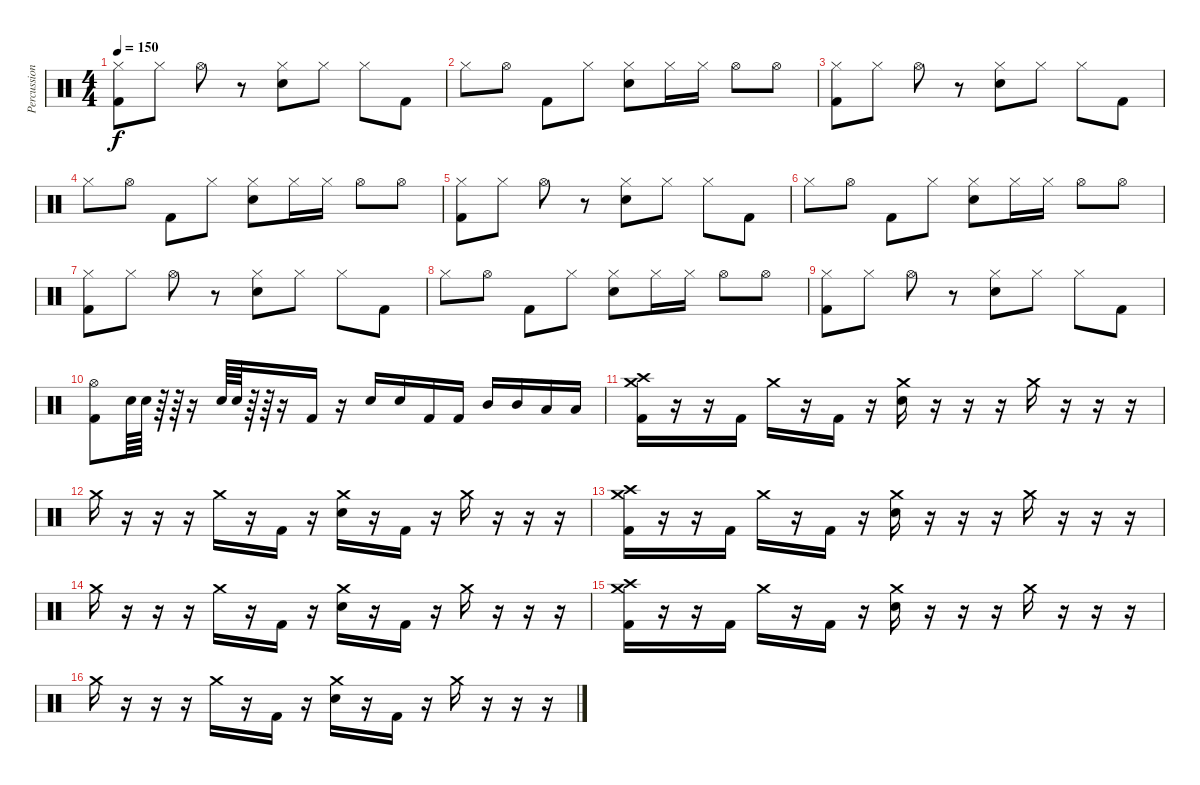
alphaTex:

\track ("Percussioni" "Percussion") {instrument percussion}
\staff {score}
\articulation defaults
\ts (4 4)
\tempo 150
\clef neutral
\ks c
("Kick (hit) 2" "Hi-Hat (closed)").8{dy f} "Hi-Hat (closed)".8 "Hi-Hat (open)".8 r.8 ("Snare (hit) 2" "Hi-Hat (closed)").8 "Hi-Hat (closed)".8 "Hi-Hat (closed)".8 "Kick (hit) 2".8 |
"Hi-Hat (closed)".8 "Hi-Hat (open)".8 "Kick (hit) 2".8 "Hi-Hat (closed)".8 ("Snare (hit) 2" "Hi-Hat (closed)").8 "Hi-Hat (closed)".16 "Hi-Hat (closed)".16 "Hi-Hat (open)".8 "Hi-Hat (open)".8 |
("Kick (hit) 2" "Hi-Hat (closed)").8 "Hi-Hat (closed)".8 "Hi-Hat (open)".8 r.8 ("Snare (hit) 2" "Hi-Hat (closed)").8 "Hi-Hat (closed)".8 "Hi-Hat (closed)".8 "Kick (hit) 2".8 |
"Hi-Hat (closed)".8 "Hi-Hat (open)".8 "Kick (hit) 2".8 "Hi-Hat (closed)".8 ("Snare (hit) 2" "Hi-Hat (closed)").8 "Hi-Hat (closed)".16 "Hi-Hat (closed)".16 "Hi-Hat (open)".8 "Hi-Hat (open)".8 |
("Kick (hit) 2" "Hi-Hat (closed)").8 "Hi-Hat (closed)".8 "Hi-Hat (open)".8 r.8 ("Snare (hit) 2" "Hi-Hat (closed)").8 "Hi-Hat (closed)".8 "Hi-Hat (closed)".8 "Kick (hit) 2".8 |
"Hi-Hat (closed)".8 "Hi-Hat (open)".8 "Kick (hit) 2".8 "Hi-Hat (closed)".8 ("Snare (hit) 2" "Hi-Hat (closed)").8 "Hi-Hat (closed)".16 "Hi-Hat (closed)".16 "Hi-Hat (open)".8 "Hi-Hat (open)".8 |
("Kick (hit) 2" "Hi-Hat (closed)").8 "Hi-Hat (closed)".8 "Hi-Hat (open)".8 r.8 ("Snare (hit) 2" "Hi-Hat (closed)").8 "Hi-Hat (closed)".8 "Hi-Hat (closed)".8 "Kick (hit) 2".8 |
"Hi-Hat (closed)".8 "Hi-Hat (open)".8 "Kick (hit) 2".8 "Hi-Hat (closed)".8 ("Snare (hit) 2" "Hi-Hat (closed)").8 "Hi-Hat (closed)".16 "Hi-Hat (closed)".16 "Hi-Hat (open)".8 "Hi-Hat (open)".8 |
("Kick (hit) 2" "Hi-Hat (closed)").8 "Hi-Hat (closed)".8 "Hi-Hat (open)".8 r.8 ("Snare (hit) 2" "Hi-Hat (closed)").8 "Hi-Hat (closed)".8 "Hi-Hat (closed)".8 "Kick (hit) 2".8 |
("Kick (hit) 2" "Hi-Hat (open)").8 "Snare (hit) 2".64 "Snare (hit) 2".64 r.64 r.64 r.16 "Snare (hit) 2".64 "Snare (hit) 2".64 r.64 r.64 r.16 "Kick (hit) 2".16 r.16 "Snare (hit) 2".16 "Snare (hit) 2".16 "Kick (hit) 2".16 "Kick (hit) 2".16 "Mid Tom (hit)".16 "Mid Tom (hit)".16 "Low Tom (hit)".16 "Low Tom (hit)".16 |
("Crash high (hit)" "Kick (hit) 2" "Crash medium (hit)").16 r.16 r.16 "Kick (hit) 2".16 "Crash medium (hit)".16 r.16 "Kick (hit) 2".16 r.16 ("Snare (hit) 2" "Crash medium (hit)").16 r.16 r.16 r.16 "Crash medium (hit)".16 r.16 r.16 r.16 |
"Crash medium (hit)".16 r.16 r.16 r.16 "Crash medium (hit)".16 r.16 "Kick (hit) 2".16 r.16 ("Snare (hit) 2" "Crash medium (hit)").16 r.16 "Kick (hit) 2".16 r.16 "Crash medium (hit)".16 r.16 r.16 r.16 |
("Crash high (hit)" "Kick (hit) 2" "Crash medium (hit)").16 r.16 r.16 "Kick (hit) 2".16 "Crash medium (hit)".16 r.16 "Kick (hit) 2".16 r.16 ("Snare (hit) 2" "Crash medium (hit)").16 r.16 r.16 r.16 "Crash medium (hit)".16 r.16 r.16 r.16 |
"Crash medium (hit)".16 r.16 r.16 r.16 "Crash medium (hit)".16 r.16 "Kick (hit) 2".16 r.16 ("Snare (hit) 2" "Crash medium (hit)").16 r.16 "Kick (hit) 2".16 r.16 "Crash medium (hit)".16 r.16 r.16 r.16 |
("Crash high (hit)" "Kick (hit) 2" "Crash medium (hit)").16 r.16 r.16 "Kick (hit) 2".16 "Crash medium (hit)".16 r.16 "Kick (hit) 2".16 r.16 ("Snare (hit) 2" "Crash medium (hit)").16 r.16 r.16 r.16 "Crash medium (hit)".16 r.16 r.16 r.16 |
"Crash medium (hit)".16 r.16 r.16 r.16 "Crash medium (hit)".16 r.16 "Kick (hit) 2".16 r.16 ("Snare (hit) 2" "Crash medium (hit)").16 r.16 "Kick (hit) 2".16 r.16 "Crash medium (hit)".16 r.16 r.16 r.16
